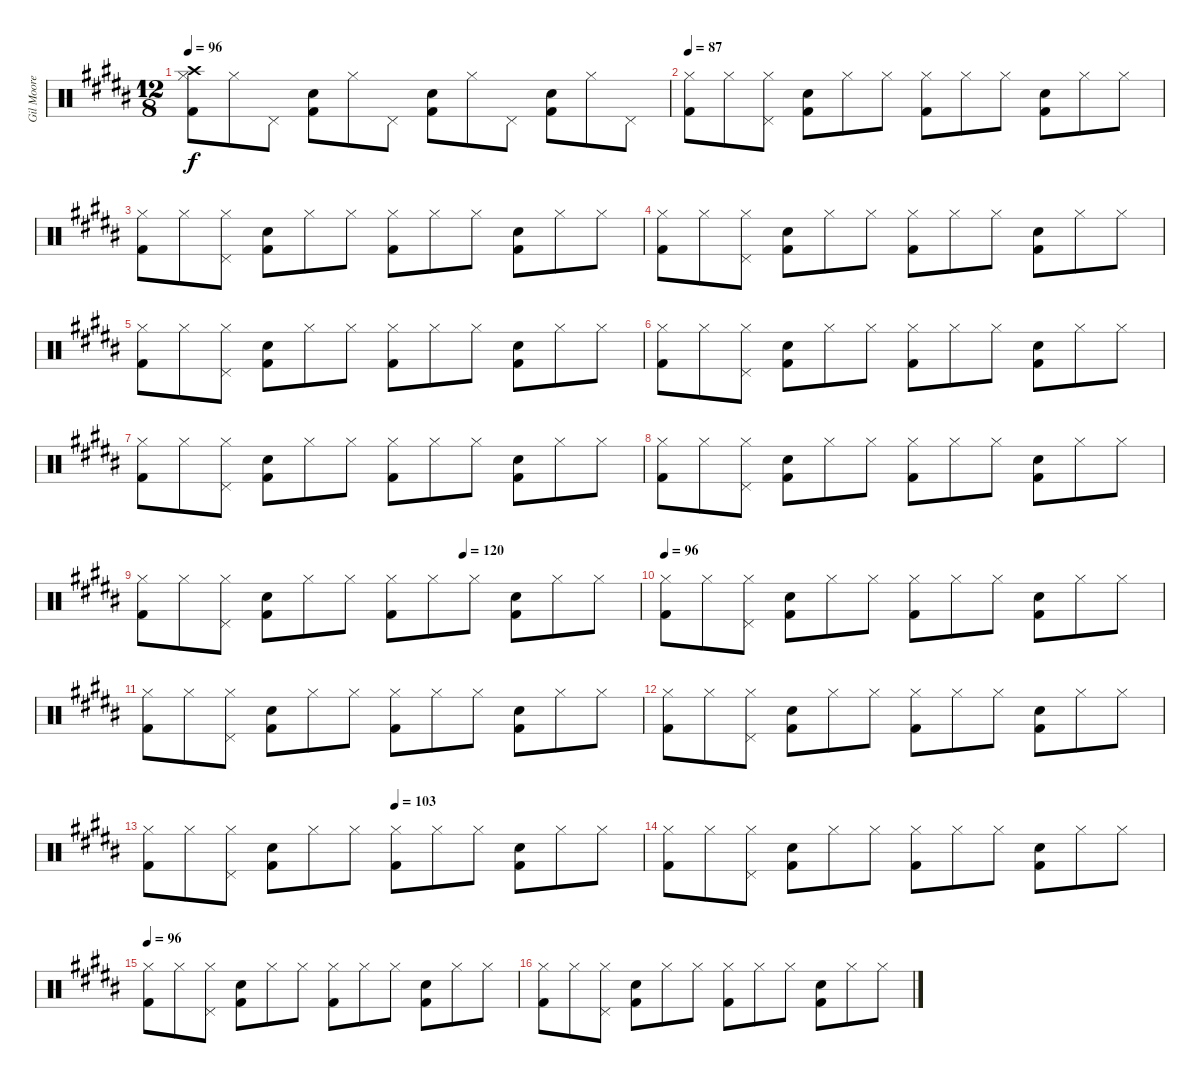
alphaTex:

\track ("Gil Moore" "Gil Moore") {instrument percussion}
\staff {score}
\articulation defaults
\ts (12 8)
\tempo 96
\clef neutral
\ks b
("Kick (hit) 2" "Hi-Hat (closed)" "Crash high (hit)").8{dy f} "Hi-Hat (closed)".8 "Pedal Hi-Hat (hit)".8 ("Snare (hit) 2" "Kick (hit) 2").8 "Hi-Hat (closed)".8 "Pedal Hi-Hat (hit)".8 ("Snare (hit) 2" "Kick (hit) 2").8 "Hi-Hat (closed)".8 "Pedal Hi-Hat (hit)".8 ("Snare (hit) 2" "Kick (hit) 2").8 "Hi-Hat (closed)".8 "Pedal Hi-Hat (hit)".8 |
\tempo 87
("Kick (hit) 2" "Hi-Hat (closed)").8 "Hi-Hat (closed)".8 ("Hi-Hat (closed)" "Pedal Hi-Hat (hit)").8 ("Snare (hit) 2" "Kick (hit) 2").8 "Hi-Hat (closed)".8 "Hi-Hat (closed)".8 ("Kick (hit) 2" "Hi-Hat (closed)").8 "Hi-Hat (closed)".8 "Hi-Hat (closed)".8 ("Snare (hit) 2" "Kick (hit) 2").8 "Hi-Hat (closed)".8 "Hi-Hat (closed)".8 |
("Kick (hit) 2" "Hi-Hat (closed)").8 "Hi-Hat (closed)".8 ("Hi-Hat (closed)" "Pedal Hi-Hat (hit)").8 ("Snare (hit) 2" "Kick (hit) 2").8 "Hi-Hat (closed)".8 "Hi-Hat (closed)".8 ("Kick (hit) 2" "Hi-Hat (closed)").8 "Hi-Hat (closed)".8 "Hi-Hat (closed)".8 ("Snare (hit) 2" "Kick (hit) 2").8 "Hi-Hat (closed)".8 "Hi-Hat (closed)".8 |
("Kick (hit) 2" "Hi-Hat (closed)").8 "Hi-Hat (closed)".8 ("Hi-Hat (closed)" "Pedal Hi-Hat (hit)").8 ("Snare (hit) 2" "Kick (hit) 2").8 "Hi-Hat (closed)".8 "Hi-Hat (closed)".8 ("Kick (hit) 2" "Hi-Hat (closed)").8 "Hi-Hat (closed)".8 "Hi-Hat (closed)".8 ("Snare (hit) 2" "Kick (hit) 2").8 "Hi-Hat (closed)".8 "Hi-Hat (closed)".8 |
("Kick (hit) 2" "Hi-Hat (closed)").8 "Hi-Hat (closed)".8 ("Hi-Hat (closed)" "Pedal Hi-Hat (hit)").8 ("Snare (hit) 2" "Kick (hit) 2").8 "Hi-Hat (closed)".8 "Hi-Hat (closed)".8 ("Kick (hit) 2" "Hi-Hat (closed)").8 "Hi-Hat (closed)".8 "Hi-Hat (closed)".8 ("Snare (hit) 2" "Kick (hit) 2").8 "Hi-Hat (closed)".8 "Hi-Hat (closed)".8 |
("Kick (hit) 2" "Hi-Hat (closed)").8 "Hi-Hat (closed)".8 ("Hi-Hat (closed)" "Pedal Hi-Hat (hit)").8 ("Snare (hit) 2" "Kick (hit) 2").8 "Hi-Hat (closed)".8 "Hi-Hat (closed)".8 ("Kick (hit) 2" "Hi-Hat (closed)").8 "Hi-Hat (closed)".8 "Hi-Hat (closed)".8 ("Snare (hit) 2" "Kick (hit) 2").8 "Hi-Hat (closed)".8 "Hi-Hat (closed)".8 |
("Kick (hit) 2" "Hi-Hat (closed)").8 "Hi-Hat (closed)".8 ("Hi-Hat (closed)" "Pedal Hi-Hat (hit)").8 ("Snare (hit) 2" "Kick (hit) 2").8 "Hi-Hat (closed)".8 "Hi-Hat (closed)".8 ("Kick (hit) 2" "Hi-Hat (closed)").8 "Hi-Hat (closed)".8 "Hi-Hat (closed)".8 ("Snare (hit) 2" "Kick (hit) 2").8 "Hi-Hat (closed)".8 "Hi-Hat (closed)".8 |
("Kick (hit) 2" "Hi-Hat (closed)").8 "Hi-Hat (closed)".8 ("Hi-Hat (closed)" "Pedal Hi-Hat (hit)").8 ("Snare (hit) 2" "Kick (hit) 2").8 "Hi-Hat (closed)".8 "Hi-Hat (closed)".8 ("Kick (hit) 2" "Hi-Hat (closed)").8 "Hi-Hat (closed)".8 "Hi-Hat (closed)".8 ("Snare (hit) 2" "Kick (hit) 2").8 "Hi-Hat (closed)".8 "Hi-Hat (closed)".8 |
\tempo (120 0.6458333333333334)
("Kick (hit) 2" "Hi-Hat (closed)").8 "Hi-Hat (closed)".8 ("Hi-Hat (closed)" "Pedal Hi-Hat (hit)").8 ("Snare (hit) 2" "Kick (hit) 2").8 "Hi-Hat (closed)".8 "Hi-Hat (closed)".8 ("Kick (hit) 2" "Hi-Hat (closed)").8 "Hi-Hat (closed)".8 "Hi-Hat (closed)".8 ("Snare (hit) 2" "Kick (hit) 2").8 "Hi-Hat (closed)".8 "Hi-Hat (closed)".8 |
\tempo 96
("Kick (hit) 2" "Hi-Hat (closed)").8 "Hi-Hat (closed)".8 ("Hi-Hat (closed)" "Pedal Hi-Hat (hit)").8 ("Snare (hit) 2" "Kick (hit) 2").8 "Hi-Hat (closed)".8 "Hi-Hat (closed)".8 ("Kick (hit) 2" "Hi-Hat (closed)").8 "Hi-Hat (closed)".8 "Hi-Hat (closed)".8 ("Snare (hit) 2" "Kick (hit) 2").8 "Hi-Hat (closed)".8 "Hi-Hat (closed)".8 |
("Kick (hit) 2" "Hi-Hat (closed)").8 "Hi-Hat (closed)".8 ("Hi-Hat (closed)" "Pedal Hi-Hat (hit)").8 ("Snare (hit) 2" "Kick (hit) 2").8 "Hi-Hat (closed)".8 "Hi-Hat (closed)".8 ("Kick (hit) 2" "Hi-Hat (closed)").8 "Hi-Hat (closed)".8 "Hi-Hat (closed)".8 ("Snare (hit) 2" "Kick (hit) 2").8 "Hi-Hat (closed)".8 "Hi-Hat (closed)".8 |
("Kick (hit) 2" "Hi-Hat (closed)").8 "Hi-Hat (closed)".8 ("Hi-Hat (closed)" "Pedal Hi-Hat (hit)").8 ("Snare (hit) 2" "Kick (hit) 2").8 "Hi-Hat (closed)".8 "Hi-Hat (closed)".8 ("Kick (hit) 2" "Hi-Hat (closed)").8 "Hi-Hat (closed)".8 "Hi-Hat (closed)".8 ("Snare (hit) 2" "Kick (hit) 2").8 "Hi-Hat (closed)".8 "Hi-Hat (closed)".8 |
\tempo (103 0.5)
("Kick (hit) 2" "Hi-Hat (closed)").8 "Hi-Hat (closed)".8 ("Hi-Hat (closed)" "Pedal Hi-Hat (hit)").8 ("Snare (hit) 2" "Kick (hit) 2").8 "Hi-Hat (closed)".8 "Hi-Hat (closed)".8 ("Kick (hit) 2" "Hi-Hat (closed)").8 "Hi-Hat (closed)".8 "Hi-Hat (closed)".8 ("Snare (hit) 2" "Kick (hit) 2").8 "Hi-Hat (closed)".8 "Hi-Hat (closed)".8 |
("Kick (hit) 2" "Hi-Hat (closed)").8 "Hi-Hat (closed)".8 ("Hi-Hat (closed)" "Pedal Hi-Hat (hit)").8 ("Snare (hit) 2" "Kick (hit) 2").8 "Hi-Hat (closed)".8 "Hi-Hat (closed)".8 ("Kick (hit) 2" "Hi-Hat (closed)").8 "Hi-Hat (closed)".8 "Hi-Hat (closed)".8 ("Snare (hit) 2" "Kick (hit) 2").8 "Hi-Hat (closed)".8 "Hi-Hat (closed)".8 |
\tempo 96
("Kick (hit) 2" "Hi-Hat (closed)").8 "Hi-Hat (closed)".8 ("Hi-Hat (closed)" "Pedal Hi-Hat (hit)").8 ("Snare (hit) 2" "Kick (hit) 2").8 "Hi-Hat (closed)".8 "Hi-Hat (closed)".8 ("Kick (hit) 2" "Hi-Hat (closed)").8 "Hi-Hat (closed)".8 "Hi-Hat (closed)".8 ("Snare (hit) 2" "Kick (hit) 2").8 "Hi-Hat (closed)".8 "Hi-Hat (closed)".8 |
("Kick (hit) 2" "Hi-Hat (closed)").8 "Hi-Hat (closed)".8 ("Hi-Hat (closed)" "Pedal Hi-Hat (hit)").8 ("Snare (hit) 2" "Kick (hit) 2").8 "Hi-Hat (closed)".8 "Hi-Hat (closed)".8 ("Kick (hit) 2" "Hi-Hat (closed)").8 "Hi-Hat (closed)".8 "Hi-Hat (closed)".8 ("Snare (hit) 2" "Kick (hit) 2").8 "Hi-Hat (closed)".8 "Hi-Hat (closed)".8
